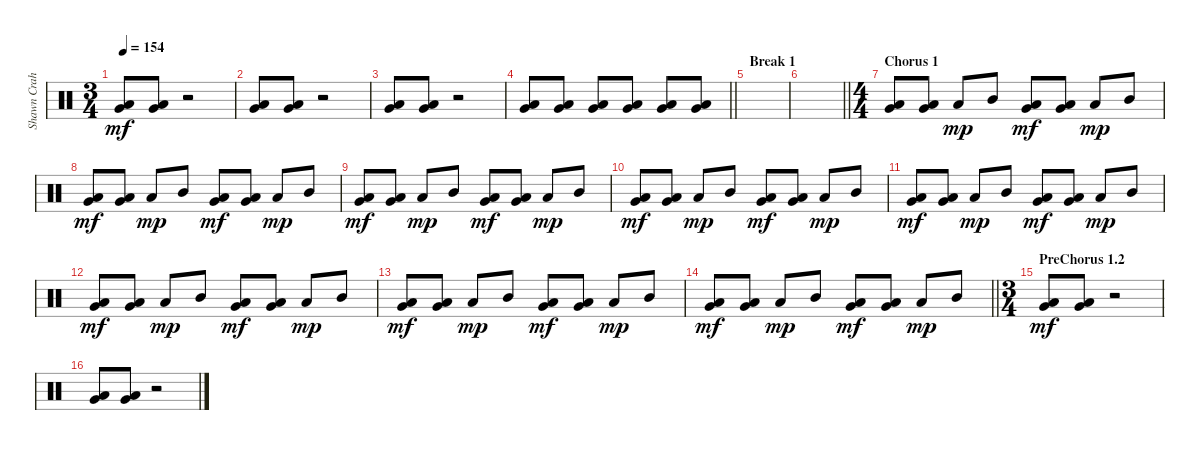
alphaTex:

\track ("Shawn Crahan" "Shawn Crah") {instrument percussion}
\staff {score}
\articulation defaults
\ts (3 4)
\tempo 154
\clef neutral
\ks c
("Very Low Tom (hit)" "Low Floor Tom (hit)").8{dy mf} ("Very Low Tom (hit)" "Low Floor Tom (hit)").8 r.2 |
("Very Low Tom (hit)" "Low Floor Tom (hit)").8 ("Very Low Tom (hit)" "Low Floor Tom (hit)").8 r.2 |
("Very Low Tom (hit)" "Low Floor Tom (hit)").8 ("Very Low Tom (hit)" "Low Floor Tom (hit)").8 r.2 |
\barLineRight lightlight
("Very Low Tom (hit)" "Low Floor Tom (hit)").8 ("Very Low Tom (hit)" "Low Floor Tom (hit)").8 ("Very Low Tom (hit)" "Low Floor Tom (hit)").8 ("Very Low Tom (hit)" "Low Floor Tom (hit)").8 ("Very Low Tom (hit)" "Low Floor Tom (hit)").8 ("Very Low Tom (hit)" "Low Floor Tom (hit)").8 |
\section ("" "Break 1")
|
\barLineRight lightlight
|
\ts (4 4)
\section ("" "Chorus 1")
("Very Low Tom (hit)" "Low Floor Tom (hit)").8 ("Very Low Tom (hit)" "Low Floor Tom (hit)").8 "Low Tom (hit)".8{dy mp} "Mid Tom (hit)".8 ("Very Low Tom (hit)" "Low Floor Tom (hit)").8{dy mf} ("Very Low Tom (hit)" "Low Floor Tom (hit)").8 "Low Tom (hit)".8{dy mp} "Mid Tom (hit)".8 |
("Very Low Tom (hit)" "Low Floor Tom (hit)").8{dy mf} ("Very Low Tom (hit)" "Low Floor Tom (hit)").8 "Low Tom (hit)".8{dy mp} "Mid Tom (hit)".8 ("Very Low Tom (hit)" "Low Floor Tom (hit)").8{dy mf} ("Very Low Tom (hit)" "Low Floor Tom (hit)").8 "Low Tom (hit)".8{dy mp} "Mid Tom (hit)".8 |
("Very Low Tom (hit)" "Low Floor Tom (hit)").8{dy mf} ("Very Low Tom (hit)" "Low Floor Tom (hit)").8 "Low Tom (hit)".8{dy mp} "Mid Tom (hit)".8 ("Very Low Tom (hit)" "Low Floor Tom (hit)").8{dy mf} ("Very Low Tom (hit)" "Low Floor Tom (hit)").8 "Low Tom (hit)".8{dy mp} "Mid Tom (hit)".8 |
("Very Low Tom (hit)" "Low Floor Tom (hit)").8{dy mf} ("Very Low Tom (hit)" "Low Floor Tom (hit)").8 "Low Tom (hit)".8{dy mp} "Mid Tom (hit)".8 ("Very Low Tom (hit)" "Low Floor Tom (hit)").8{dy mf} ("Very Low Tom (hit)" "Low Floor Tom (hit)").8 "Low Tom (hit)".8{dy mp} "Mid Tom (hit)".8 |
("Very Low Tom (hit)" "Low Floor Tom (hit)").8{dy mf} ("Very Low Tom (hit)" "Low Floor Tom (hit)").8 "Low Tom (hit)".8{dy mp} "Mid Tom (hit)".8 ("Very Low Tom (hit)" "Low Floor Tom (hit)").8{dy mf} ("Very Low Tom (hit)" "Low Floor Tom (hit)").8 "Low Tom (hit)".8{dy mp} "Mid Tom (hit)".8 |
("Very Low Tom (hit)" "Low Floor Tom (hit)").8{dy mf} ("Very Low Tom (hit)" "Low Floor Tom (hit)").8 "Low Tom (hit)".8{dy mp} "Mid Tom (hit)".8 ("Very Low Tom (hit)" "Low Floor Tom (hit)").8{dy mf} ("Very Low Tom (hit)" "Low Floor Tom (hit)").8 "Low Tom (hit)".8{dy mp} "Mid Tom (hit)".8 |
("Very Low Tom (hit)" "Low Floor Tom (hit)").8{dy mf} ("Very Low Tom (hit)" "Low Floor Tom (hit)").8 "Low Tom (hit)".8{dy mp} "Mid Tom (hit)".8 ("Very Low Tom (hit)" "Low Floor Tom (hit)").8{dy mf} ("Very Low Tom (hit)" "Low Floor Tom (hit)").8 "Low Tom (hit)".8{dy mp} "Mid Tom (hit)".8 |
\barLineRight lightlight
("Very Low Tom (hit)" "Low Floor Tom (hit)").8{dy mf} ("Very Low Tom (hit)" "Low Floor Tom (hit)").8 "Low Tom (hit)".8{dy mp} "Mid Tom (hit)".8 ("Very Low Tom (hit)" "Low Floor Tom (hit)").8{dy mf} ("Very Low Tom (hit)" "Low Floor Tom (hit)").8 "Low Tom (hit)".8{dy mp} "Mid Tom (hit)".8 |
\ts (3 4)
\section ("" "PreChorus 1.2")
("Very Low Tom (hit)" "Low Floor Tom (hit)").8{dy mf} ("Very Low Tom (hit)" "Low Floor Tom (hit)").8 r.2 |
("Very Low Tom (hit)" "Low Floor Tom (hit)").8 ("Very Low Tom (hit)" "Low Floor Tom (hit)").8 r.2
